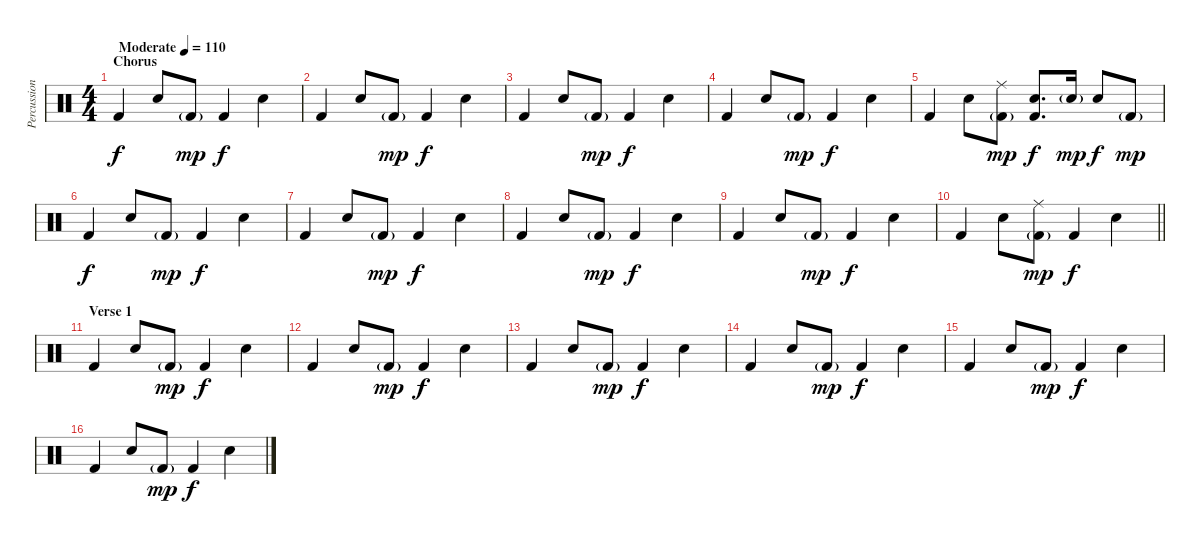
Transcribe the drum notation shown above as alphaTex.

\track ("Percussion" "Percussion") {instrument percussion}
\staff {score}
\articulation defaults
\ts (4 4)
\section ("" "Chorus")
\tempo (110 "Moderate")
\clef neutral
\ks c "Kick (hit) 2".4{dy f} "Snare (hit) 2".8 "Kick (hit) 2"{g}.8{dy mp} "Kick (hit) 2".4{dy f} "Snare (hit) 2".4
|
"Kick (hit) 2".4 "Snare (hit) 2".8 "Kick (hit) 2"{g}.8{dy mp} "Kick (hit) 2".4{dy f} "Snare (hit) 2".4 |
"Kick (hit) 2".4 "Snare (hit) 2".8 "Kick (hit) 2"{g}.8{dy mp} "Kick (hit) 2".4{dy f} "Snare (hit) 2".4 |
"Kick (hit) 2".4 "Snare (hit) 2".8 "Kick (hit) 2"{g}.8{dy mp} "Kick (hit) 2".4{dy f} "Snare (hit) 2".4 |
"Kick (hit) 2".4 "Snare (hit) 2".8 ("Ride (middle)" "Kick (hit) 2"{g}).8{dy mp} ("Snare (hit) 2" "Kick (hit) 2").8{d dy f} "Snare (hit) 2"{g}.16{dy mp} "Snare (hit) 2".8{dy f} "Kick (hit) 2"{g}.8{dy mp} |
"Kick (hit) 2".4{dy f} "Snare (hit) 2".8 "Kick (hit) 2"{g}.8{dy mp} "Kick (hit) 2".4{dy f} "Snare (hit) 2".4 |
"Kick (hit) 2".4 "Snare (hit) 2".8 "Kick (hit) 2"{g}.8{dy mp} "Kick (hit) 2".4{dy f} "Snare (hit) 2".4 |
"Kick (hit) 2".4 "Snare (hit) 2".8 "Kick (hit) 2"{g}.8{dy mp} "Kick (hit) 2".4{dy f} "Snare (hit) 2".4 |
"Kick (hit) 2".4 "Snare (hit) 2".8 "Kick (hit) 2"{g}.8{dy mp} "Kick (hit) 2".4{dy f} "Snare (hit) 2".4 |
\barLineRight lightlight "Kick (hit) 2".4 "Snare (hit) 2".8
("Ride (middle)" "Kick (hit) 2"{g}).8{dy mp} "Kick (hit) 2".4{dy f} "Snare (hit) 2".4 |
\section ("" "Verse 1")
"Kick (hit) 2".4 "Snare (hit) 2".8 "Kick (hit) 2"{g}.8{dy mp} "Kick (hit) 2".4{dy f} "Snare (hit) 2".4 |
"Kick (hit) 2".4 "Snare (hit) 2".8 "Kick (hit) 2"{g}.8{dy mp} "Kick (hit) 2".4{dy f} "Snare (hit) 2".4 |
"Kick (hit) 2".4 "Snare (hit) 2".8 "Kick (hit) 2"{g}.8{dy mp} "Kick (hit) 2".4{dy f} "Snare (hit) 2".4 |
"Kick (hit) 2".4 "Snare (hit) 2".8 "Kick (hit) 2"{g}.8{dy mp} "Kick (hit) 2".4{dy f} "Snare (hit) 2".4 |
"Kick (hit) 2".4 "Snare (hit) 2".8 "Kick (hit) 2"{g}.8{dy mp} "Kick (hit) 2".4{dy f} "Snare (hit) 2".4 |
"Kick (hit) 2".4 "Snare (hit) 2".8 "Kick (hit) 2"{g}.8{dy mp} "Kick (hit) 2".4{dy f} "Snare (hit) 2".4
